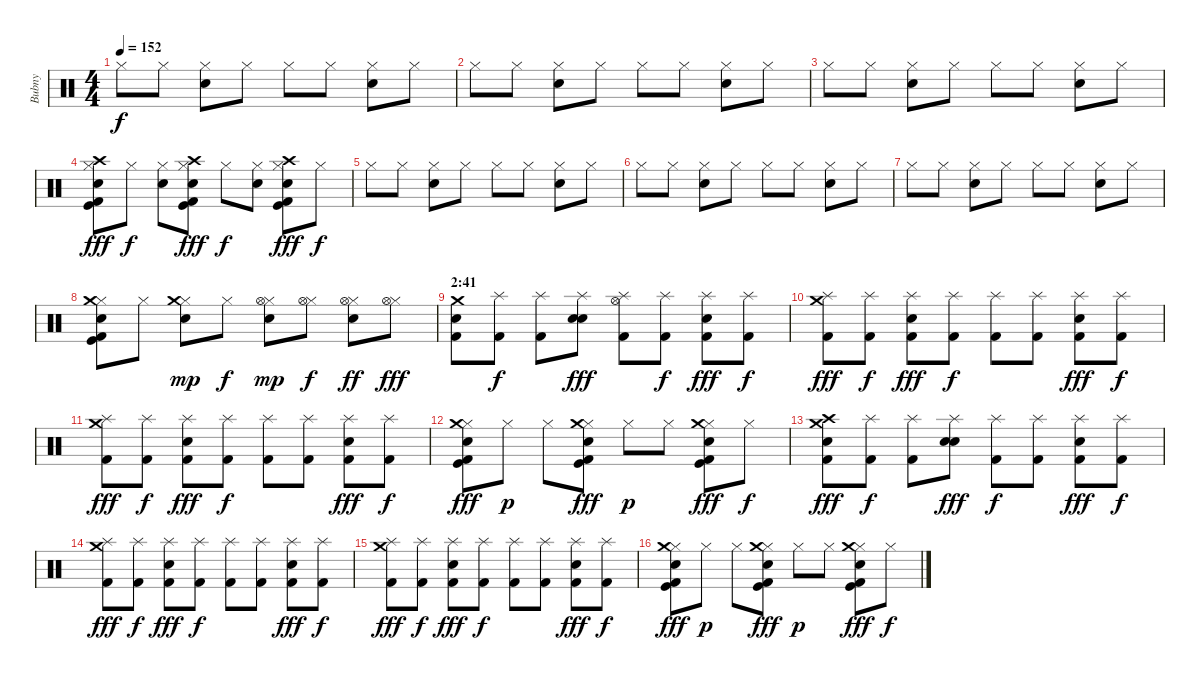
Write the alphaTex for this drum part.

\track ("Bubny" "Bubny") {instrument percussion}
\staff {score}
\articulation defaults
\ts (4 4)
\tempo 152
\clef neutral
\ks c "Hi-Hat (closed)".8{dy f} "Hi-Hat (closed)".8
("Hi-Hat (closed)" "Snare (hit) 2").8 "Hi-Hat (closed)".8 "Hi-Hat (closed)".8 "Hi-Hat (closed)".8 ("Hi-Hat (closed)" "Snare (hit) 2").8 "Hi-Hat (closed)".8 |
"Hi-Hat (closed)".8 "Hi-Hat (closed)".8 ("Hi-Hat (closed)" "Snare (hit) 2").8 "Hi-Hat (closed)".8 "Hi-Hat (closed)".8 "Hi-Hat (closed)".8 ("Hi-Hat (closed)" "Snare (hit) 2").8 "Hi-Hat (closed)".8 |
"Hi-Hat (closed)".8 "Hi-Hat (closed)".8 ("Hi-Hat (closed)" "Snare (hit) 2").8 "Hi-Hat (closed)".8 "Hi-Hat (closed)".8 "Hi-Hat (closed)".8 ("Hi-Hat (closed)" "Snare (hit) 2").8 "Hi-Hat (closed)".8 |
("Hi-Hat (closed)" "Crash high (hit)" "Kick (hit) 2" "Kick (hit)" "Snare (hit) 2").8{dy fff} "Hi-Hat (closed)".8{dy f} ("Hi-Hat (closed)" "Snare (hit) 2").8 ("Hi-Hat (closed)" "Crash high (hit)" "Kick (hit) 2" "Kick (hit)" "Snare (hit) 2").8{dy fff} "Hi-Hat (closed)".8{dy f} ("Hi-Hat (closed)" "Snare (hit) 2").8 ("Hi-Hat (closed)" "Crash high (hit)" "Kick (hit) 2" "Kick (hit)" "Snare (hit) 2").8{dy fff} "Hi-Hat (closed)".8{dy f} |
"Hi-Hat (closed)".8 "Hi-Hat (closed)".8 ("Hi-Hat (closed)" "Snare (hit) 2").8 "Hi-Hat (closed)".8 "Hi-Hat (closed)".8 "Hi-Hat (closed)".8 ("Hi-Hat (closed)" "Snare (hit) 2").8 "Hi-Hat (closed)".8 |
"Hi-Hat (closed)".8 "Hi-Hat (closed)".8 ("Hi-Hat (closed)" "Snare (hit) 2").8 "Hi-Hat (closed)".8 "Hi-Hat (closed)".8 "Hi-Hat (closed)".8 ("Hi-Hat (closed)" "Snare (hit) 2").8 "Hi-Hat (closed)".8 |
"Hi-Hat (closed)".8 "Hi-Hat (closed)".8 ("Hi-Hat (closed)" "Snare (hit) 2").8 "Hi-Hat (closed)".8 "Hi-Hat (closed)".8 "Hi-Hat (closed)".8 ("Hi-Hat (closed)" "Snare (hit) 2").8 "Hi-Hat (closed)".8 |
("Hi-Hat (closed)" "Snare (hit) 2" "Crash medium (hit)" "Kick (hit)" "Kick (hit) 2").8 "Hi-Hat (closed)".8 ("Hi-Hat (closed)" "Snare (hit) 2" "Crash medium (hit)").8{dy mp} "Hi-Hat (closed)".8{dy f} ("Hi-Hat (closed)" "Snare (hit) 2" "Hi-Hat (open)").8{dy mp} ("Hi-Hat (closed)" "Hi-Hat (open)").8{dy f} ("Hi-Hat (closed)" "Snare (hit) 2" "Hi-Hat (open)").8{dy ff} ("Hi-Hat (closed)" "Hi-Hat (open)").8{dy fff} |
\section ("" "2:41")
("Kick (hit) 2" "Electric Snare (hit)" "Crash medium (hit)").8 ("Splash (hit)" "Kick (hit) 2").8{dy f} ("Splash (hit)" "Kick (hit) 2").8 ("Splash (hit)" "Electric Snare (hit)" "Snare (hit) 2").8{dy fff} ("Splash (hit)" "Kick (hit) 2" "Hi-Hat (open)").8 ("Splash (hit)" "Kick (hit) 2").8{dy f} ("Splash (hit)" "Kick (hit) 2" "Snare (hit) 2").8{dy fff} ("Splash (hit)" "Kick (hit) 2").8{dy f} |
("Splash (hit)" "Kick (hit) 2" "Crash medium (hit)").8{dy fff} ("Splash (hit)" "Kick (hit) 2").8{dy f} ("Splash (hit)" "Kick (hit) 2" "Snare (hit) 2").8{dy fff} ("Splash (hit)" "Kick (hit) 2").8{dy f} ("Splash (hit)" "Kick (hit) 2").8 ("Splash (hit)" "Kick (hit) 2").8 ("Splash (hit)" "Kick (hit) 2" "Snare (hit) 2").8{dy fff} ("Splash (hit)" "Kick (hit) 2").8{dy f} |
("Splash (hit)" "Kick (hit) 2" "Crash medium (hit)").8{dy fff} ("Splash (hit)" "Kick (hit) 2").8{dy f} ("Splash (hit)" "Kick (hit) 2" "Snare (hit) 2").8{dy fff} ("Splash (hit)" "Kick (hit) 2").8{dy f} ("Splash (hit)" "Kick (hit) 2").8 ("Splash (hit)" "Kick (hit) 2").8 ("Splash (hit)" "Kick (hit) 2" "Snare (hit) 2").8{dy fff} ("Splash (hit)" "Kick (hit) 2").8{dy f} |
("Hi-Hat (closed)" "Crash medium (hit)" "Kick (hit) 2" "Kick (hit)" "Snare (hit) 2").8{dy fff} "Hi-Hat (closed)".8{dy p} "Hi-Hat (closed)".8 ("Hi-Hat (closed)" "Crash medium (hit)" "Kick (hit) 2" "Kick (hit)" "Snare (hit) 2").8{dy fff} "Hi-Hat (closed)".8{dy p} "Hi-Hat (closed)".8 ("Hi-Hat (closed)" "Crash medium (hit)" "Kick (hit) 2" "Kick (hit)" "Snare (hit) 2").8{dy fff} "Hi-Hat (closed)".8{dy f} |
("Kick (hit) 2" "Electric Snare (hit)" "Crash high (hit)" "Crash medium (hit)").8{dy fff} ("Splash (hit)" "Kick (hit) 2").8{dy f} ("Splash (hit)" "Kick (hit) 2").8 ("Splash (hit)" "Electric Snare (hit)" "Snare (hit) 2").8{dy fff} ("Splash (hit)" "Kick (hit) 2").8{dy f} ("Splash (hit)" "Kick (hit) 2").8 ("Splash (hit)" "Kick (hit) 2" "Snare (hit) 2").8{dy fff} ("Splash (hit)" "Kick (hit) 2").8{dy f} |
("Splash (hit)" "Kick (hit) 2" "Crash medium (hit)").8{dy fff} ("Splash (hit)" "Kick (hit) 2").8{dy f} ("Splash (hit)" "Kick (hit) 2" "Snare (hit) 2").8{dy fff} ("Splash (hit)" "Kick (hit) 2").8{dy f} ("Splash (hit)" "Kick (hit) 2").8 ("Splash (hit)" "Kick (hit) 2").8 ("Splash (hit)" "Kick (hit) 2" "Snare (hit) 2").8{dy fff} ("Splash (hit)" "Kick (hit) 2").8{dy f} |
("Splash (hit)" "Kick (hit) 2" "Crash medium (hit)").8{dy fff} ("Splash (hit)" "Kick (hit) 2").8{dy f} ("Splash (hit)" "Kick (hit) 2" "Snare (hit) 2").8{dy fff} ("Splash (hit)" "Kick (hit) 2").8{dy f} ("Splash (hit)" "Kick (hit) 2").8 ("Splash (hit)" "Kick (hit) 2").8 ("Splash (hit)" "Kick (hit) 2" "Snare (hit) 2").8{dy fff} ("Splash (hit)" "Kick (hit) 2").8{dy f} |
("Hi-Hat (closed)" "Crash medium (hit)" "Kick (hit) 2" "Kick (hit)" "Snare (hit) 2").8{dy fff} "Hi-Hat (closed)".8{dy p} "Hi-Hat (closed)".8 ("Hi-Hat (closed)" "Crash medium (hit)" "Kick (hit) 2" "Kick (hit)" "Snare (hit) 2").8{dy fff} "Hi-Hat (closed)".8{dy p} "Hi-Hat (closed)".8 ("Hi-Hat (closed)" "Crash medium (hit)" "Kick (hit) 2" "Kick (hit)" "Snare (hit) 2").8{dy fff} "Hi-Hat (closed)".8{dy f}
